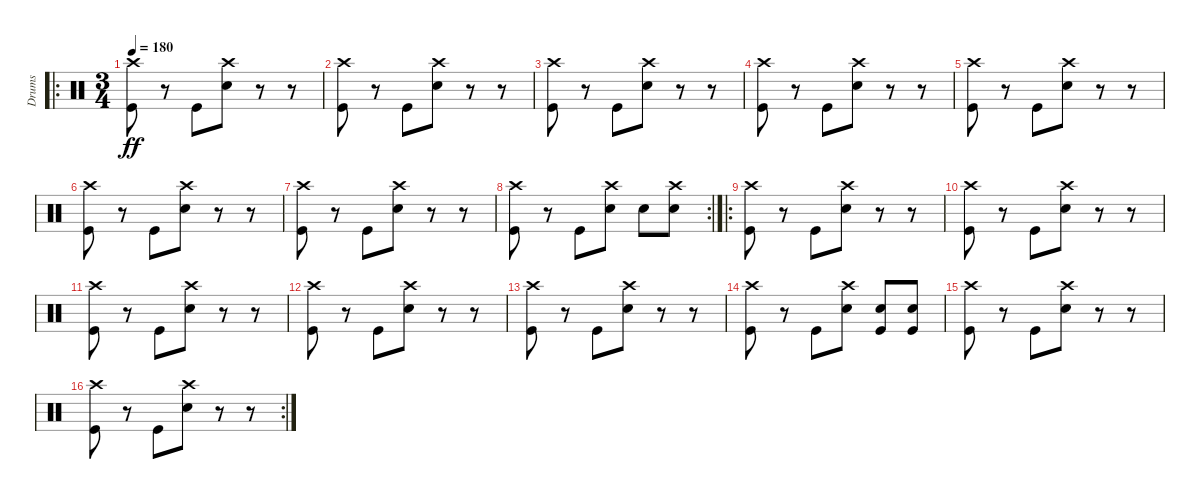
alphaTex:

\track ("Drums" "Drums") {instrument percussion}
\staff {score}
\articulation defaults
\ro
\ts (3 4)
\tempo 180
\clef neutral
\ks c
("Crash high (hit)" "Kick (hit)").8{dy ff} r.8 "Kick (hit)".8 ("Crash high (hit)" "Snare (hit) 2").8 r.8 r.8 |
("Crash high (hit)" "Kick (hit)").8 r.8 "Kick (hit)".8 ("Crash high (hit)" "Snare (hit) 2").8 r.8 r.8 |
("Crash high (hit)" "Kick (hit)").8 r.8 "Kick (hit)".8 ("Crash high (hit)" "Snare (hit) 2").8 r.8 r.8 |
("Crash high (hit)" "Kick (hit)").8 r.8 "Kick (hit)".8 ("Crash high (hit)" "Snare (hit) 2").8 r.8 r.8 |
("Crash high (hit)" "Kick (hit)").8 r.8 "Kick (hit)".8 ("Crash high (hit)" "Snare (hit) 2").8 r.8 r.8 |
("Crash high (hit)" "Kick (hit)").8 r.8 "Kick (hit)".8 ("Crash high (hit)" "Snare (hit) 2").8 r.8 r.8 |
("Crash high (hit)" "Kick (hit)").8 r.8 "Kick (hit)".8 ("Crash high (hit)" "Snare (hit) 2").8 r.8 r.8 |
\rc 2
("Crash high (hit)" "Kick (hit)").8 r.8 "Kick (hit)".8 ("Crash high (hit)" "Snare (hit) 2").8 "Snare (hit) 2".8 ("Crash high (hit)" "Snare (hit) 2").8 |
\ro
("Crash high (hit)" "Kick (hit)").8 r.8 "Kick (hit)".8 ("Crash high (hit)" "Snare (hit) 2").8 r.8 r.8 |
("Crash high (hit)" "Kick (hit)").8 r.8 "Kick (hit)".8 ("Crash high (hit)" "Snare (hit) 2").8 r.8 r.8 |
("Crash high (hit)" "Kick (hit)").8 r.8 "Kick (hit)".8 ("Crash high (hit)" "Snare (hit) 2").8 r.8 r.8 |
("Crash high (hit)" "Kick (hit)").8 r.8 "Kick (hit)".8 ("Crash high (hit)" "Snare (hit) 2").8 r.8 r.8 |
("Crash high (hit)" "Kick (hit)").8 r.8 "Kick (hit)".8 ("Crash high (hit)" "Snare (hit) 2").8 r.8 r.8 |
("Crash high (hit)" "Kick (hit)").8 r.8 "Kick (hit)".8 ("Crash high (hit)" "Snare (hit) 2").8 ("Snare (hit) 2" "Kick (hit)").8 ("Snare (hit) 2" "Kick (hit)").8 |
("Crash high (hit)" "Kick (hit)").8 r.8 "Kick (hit)".8 ("Crash high (hit)" "Snare (hit) 2").8 r.8 r.8 |
\rc 2
("Crash high (hit)" "Kick (hit)").8 r.8 "Kick (hit)".8 ("Crash high (hit)" "Snare (hit) 2").8 r.8 r.8
